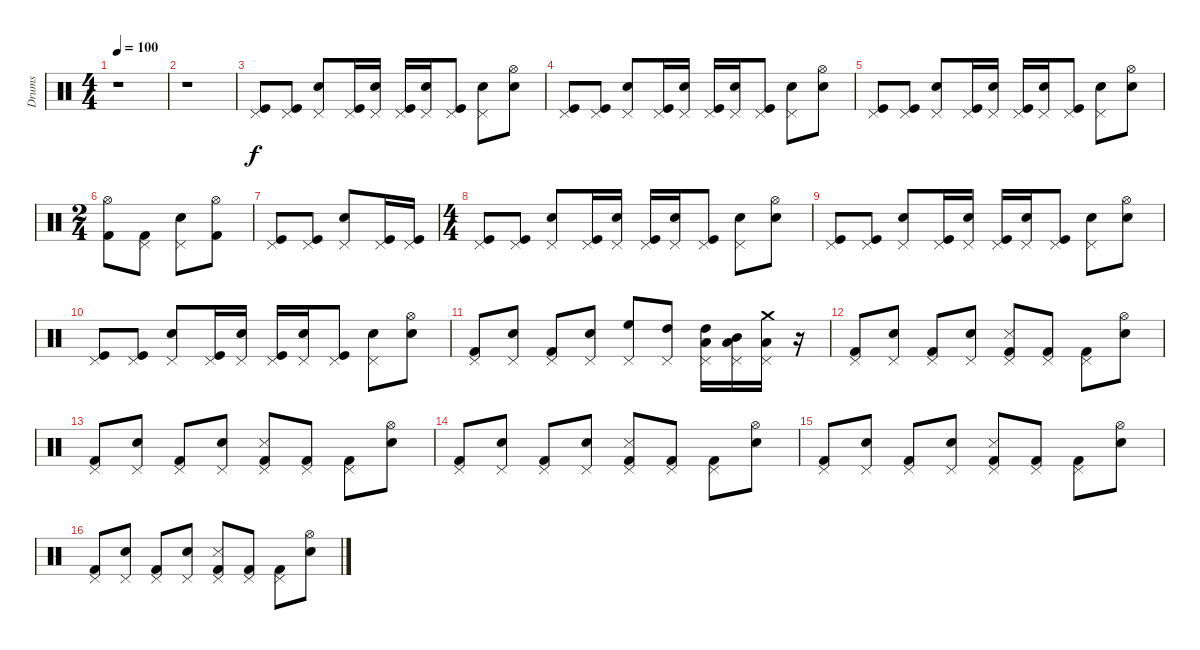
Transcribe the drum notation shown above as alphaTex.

\track ("Drums" "Drums") {instrument percussion}
\staff {score}
\articulation defaults
\ts (4 4)
\tempo 100
\clef neutral
\ks c
r.1{dy f} |
r.1 |
("Pedal Hi-Hat (hit)" "Kick (hit)").8 ("Pedal Hi-Hat (hit)" "Kick (hit)").8 ("Pedal Hi-Hat (hit)" "Snare (hit) 2").8 ("Pedal Hi-Hat (hit)" "Kick (hit)").16 ("Pedal Hi-Hat (hit)" "Snare (hit) 2").16 ("Pedal Hi-Hat (hit)" "Kick (hit)").16 ("Pedal Hi-Hat (hit)" "Snare (hit) 2").16 ("Pedal Hi-Hat (hit)" "Kick (hit)").8 ("Pedal Hi-Hat (hit)" "Snare (hit) 2").8 ("Hi-Hat (open)" "Snare (hit) 2").8 |
("Pedal Hi-Hat (hit)" "Kick (hit)").8 ("Pedal Hi-Hat (hit)" "Kick (hit)").8 ("Pedal Hi-Hat (hit)" "Snare (hit) 2").8 ("Pedal Hi-Hat (hit)" "Kick (hit)").16 ("Pedal Hi-Hat (hit)" "Snare (hit) 2").16 ("Pedal Hi-Hat (hit)" "Kick (hit)").16 ("Pedal Hi-Hat (hit)" "Snare (hit) 2").16 ("Pedal Hi-Hat (hit)" "Kick (hit)").8 ("Pedal Hi-Hat (hit)" "Snare (hit) 2").8 ("Hi-Hat (open)" "Snare (hit) 2").8 |
("Pedal Hi-Hat (hit)" "Kick (hit)").8 ("Pedal Hi-Hat (hit)" "Kick (hit)").8 ("Pedal Hi-Hat (hit)" "Snare (hit) 2").8 ("Pedal Hi-Hat (hit)" "Kick (hit)").16 ("Pedal Hi-Hat (hit)" "Snare (hit) 2").16 ("Pedal Hi-Hat (hit)" "Kick (hit)").16 ("Pedal Hi-Hat (hit)" "Snare (hit) 2").16 ("Pedal Hi-Hat (hit)" "Kick (hit)").8 ("Pedal Hi-Hat (hit)" "Snare (hit) 2").8 ("Hi-Hat (open)" "Snare (hit) 2").8 |
\ts (2 4)
("Hi-Hat (open)" "Kick (hit) 2").8 ("Pedal Hi-Hat (hit)" "Kick (hit) 2").8 ("Pedal Hi-Hat (hit)" "Snare (hit) 2").8 ("Hi-Hat (open)" "Kick (hit) 2").8 |
("Pedal Hi-Hat (hit)" "Kick (hit)").8 ("Pedal Hi-Hat (hit)" "Kick (hit)").8 ("Pedal Hi-Hat (hit)" "Snare (hit) 2").8 ("Pedal Hi-Hat (hit)" "Kick (hit)").16 ("Pedal Hi-Hat (hit)" "Kick (hit)").16 |
\ts (4 4)
("Pedal Hi-Hat (hit)" "Kick (hit)").8 ("Pedal Hi-Hat (hit)" "Kick (hit)").8 ("Pedal Hi-Hat (hit)" "Snare (hit) 2").8 ("Pedal Hi-Hat (hit)" "Kick (hit)").16 ("Pedal Hi-Hat (hit)" "Snare (hit) 2").16 ("Pedal Hi-Hat (hit)" "Kick (hit)").16 ("Pedal Hi-Hat (hit)" "Snare (hit) 2").16 ("Pedal Hi-Hat (hit)" "Kick (hit)").8 ("Pedal Hi-Hat (hit)" "Snare (hit) 2").8 ("Hi-Hat (open)" "Snare (hit) 2").8 |
("Pedal Hi-Hat (hit)" "Kick (hit)").8 ("Pedal Hi-Hat (hit)" "Kick (hit)").8 ("Pedal Hi-Hat (hit)" "Snare (hit) 2").8 ("Pedal Hi-Hat (hit)" "Kick (hit)").16 ("Pedal Hi-Hat (hit)" "Snare (hit) 2").16 ("Pedal Hi-Hat (hit)" "Kick (hit)").16 ("Pedal Hi-Hat (hit)" "Snare (hit) 2").16 ("Pedal Hi-Hat (hit)" "Kick (hit)").8 ("Pedal Hi-Hat (hit)" "Snare (hit) 2").8 ("Hi-Hat (open)" "Snare (hit) 2").8 |
("Pedal Hi-Hat (hit)" "Kick (hit)").8 ("Pedal Hi-Hat (hit)" "Kick (hit)").8 ("Pedal Hi-Hat (hit)" "Snare (hit) 2").8 ("Pedal Hi-Hat (hit)" "Kick (hit)").16 ("Pedal Hi-Hat (hit)" "Snare (hit) 2").16 ("Pedal Hi-Hat (hit)" "Kick (hit)").16 ("Pedal Hi-Hat (hit)" "Snare (hit) 2").16 ("Pedal Hi-Hat (hit)" "Kick (hit)").8 ("Pedal Hi-Hat (hit)" "Snare (hit) 2").8 ("Hi-Hat (open)" "Snare (hit) 2").8 |
("Pedal Hi-Hat (hit)" "Kick (hit) 2").8 ("Pedal Hi-Hat (hit)" "Snare (hit) 2").8 ("Pedal Hi-Hat (hit)" "Kick (hit) 2").8 ("Pedal Hi-Hat (hit)" "Snare (hit) 2").8 ("Pedal Hi-Hat (hit)" "High Floor Tom (hit)").8 ("Pedal Hi-Hat (hit)" "High Tom (hit)").8 ("Low Tom (hit)" "High Tom (hit)" "Pedal Hi-Hat (hit)").16 ("Low Tom (hit)" "Mid Tom (hit)" "Pedal Hi-Hat (hit)").16 ("Crash medium (hit)" "Low Tom (hit)" "Pedal Hi-Hat (hit)").16 r.16 |
("Pedal Hi-Hat (hit)" "Kick (hit) 2").8 ("Pedal Hi-Hat (hit)" "Snare (hit) 2").8 ("Pedal Hi-Hat (hit)" "Kick (hit) 2").8 ("Pedal Hi-Hat (hit)" "Snare (hit) 2").8 ("Pedal Hi-Hat (hit)" "Kick (hit) 2" "Snare (side stick) 3").8 ("Pedal Hi-Hat (hit)" "Kick (hit) 2").8 ("Pedal Hi-Hat (hit)" "Kick (hit) 2").8 ("Hi-Hat (open)" "Snare (hit) 2").8 |
("Pedal Hi-Hat (hit)" "Kick (hit) 2").8 ("Pedal Hi-Hat (hit)" "Snare (hit) 2").8 ("Pedal Hi-Hat (hit)" "Kick (hit) 2").8 ("Pedal Hi-Hat (hit)" "Snare (hit) 2").8 ("Pedal Hi-Hat (hit)" "Kick (hit) 2" "Snare (side stick) 3").8 ("Pedal Hi-Hat (hit)" "Kick (hit) 2").8 ("Pedal Hi-Hat (hit)" "Kick (hit) 2").8 ("Hi-Hat (open)" "Snare (hit) 2").8 |
("Pedal Hi-Hat (hit)" "Kick (hit) 2").8 ("Pedal Hi-Hat (hit)" "Snare (hit) 2").8 ("Pedal Hi-Hat (hit)" "Kick (hit) 2").8 ("Pedal Hi-Hat (hit)" "Snare (hit) 2").8 ("Pedal Hi-Hat (hit)" "Kick (hit) 2" "Snare (side stick) 3").8 ("Pedal Hi-Hat (hit)" "Kick (hit) 2").8 ("Pedal Hi-Hat (hit)" "Kick (hit) 2").8 ("Hi-Hat (open)" "Snare (hit) 2").8 |
("Pedal Hi-Hat (hit)" "Kick (hit) 2").8 ("Pedal Hi-Hat (hit)" "Snare (hit) 2").8 ("Pedal Hi-Hat (hit)" "Kick (hit) 2").8 ("Pedal Hi-Hat (hit)" "Snare (hit) 2").8 ("Pedal Hi-Hat (hit)" "Kick (hit) 2" "Snare (side stick) 3").8 ("Pedal Hi-Hat (hit)" "Kick (hit) 2").8 ("Pedal Hi-Hat (hit)" "Kick (hit) 2").8 ("Hi-Hat (open)" "Snare (hit) 2").8 |
("Pedal Hi-Hat (hit)" "Kick (hit) 2").8 ("Pedal Hi-Hat (hit)" "Snare (hit) 2").8 ("Pedal Hi-Hat (hit)" "Kick (hit) 2").8 ("Pedal Hi-Hat (hit)" "Snare (hit) 2").8 ("Pedal Hi-Hat (hit)" "Kick (hit) 2" "Snare (side stick) 3").8 ("Pedal Hi-Hat (hit)" "Kick (hit) 2").8 ("Pedal Hi-Hat (hit)" "Kick (hit) 2").8 ("Hi-Hat (open)" "Snare (hit) 2").8
